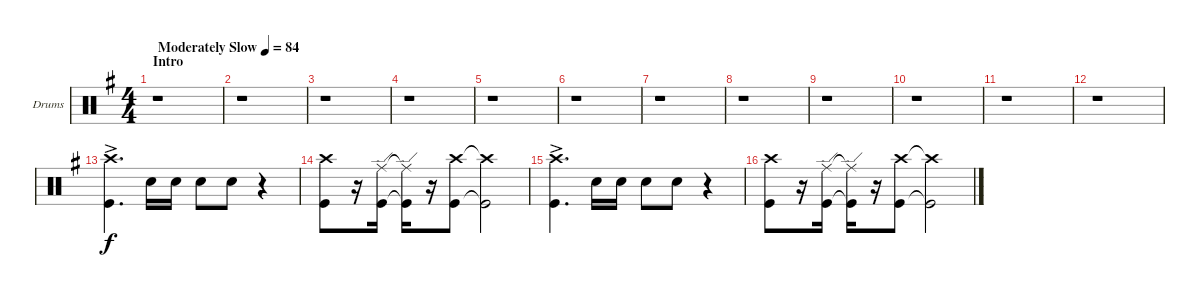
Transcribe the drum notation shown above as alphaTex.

\defaultSystemsLayout 4
\bracketExtendMode groupsimilarinstruments
\firstSystemTrackNameOrientation horizontal
\otherSystemsTrackNameOrientation horizontal
\track ("Drums" "Drums") {instrument percussion}
\staff {score}
\articulation defaults
\ts (4 4)
\section ("" "Intro")
\tempo (84 "Moderately Slow")
\clef neutral
\scale
0.502183
\ks g
r.1{dy f} |
\scale
0.248908 r.1 |
\scale
0.248908 r.1 |
\scale
0.333333 r.1 |
\scale
0.333333 r.1 |
\scale
0.333333 r.1 |
\scale
0.333333 r.1 |
\scale
0.333333 r.1 |
\scale
0.333333 r.1 |
\scale
0.333333 r.1 |
\scale
0.333333 r.1 |
\scale
0.333333 r.1 |
\scale
0.333333 ("Kick (hit)"{ac} "Crash high (hit)"{ac}).4{d} "Snare (hit) 2".16 "Snare (hit) 2".16 "Snare (hit) 2".8 "Snare (hit) 2".8 r.4 |
\scale
0.333333 ("Kick (hit)" "Crash high (hit)").8 r.16 ("Kick (hit)" "Ride (edge)").16 ("Kick (hit)"{t} "Ride (edge)"{t}).16 r.16 ("Kick (hit)" "Crash high (hit)").8 ("Kick (hit)"{t} "Crash high (hit)"{t}).2 |
\scale
0.333333 ("Kick (hit)"{ac} "Crash high (hit)"{ac}).4{d} "Snare (hit) 2".16 "Snare (hit) 2".16 "Snare (hit) 2".8 "Snare (hit) 2".8 r.4 |
\scale
0.333333 ("Kick (hit)" "Crash high (hit)").8 r.16 ("Kick (hit)" "Ride (edge)").16 ("Kick (hit)"{t} "Ride (edge)"{t}).16 r.16 ("Kick (hit)" "Crash high (hit)").8 ("Kick (hit)"{t} "Crash high (hit)"{t}).2
